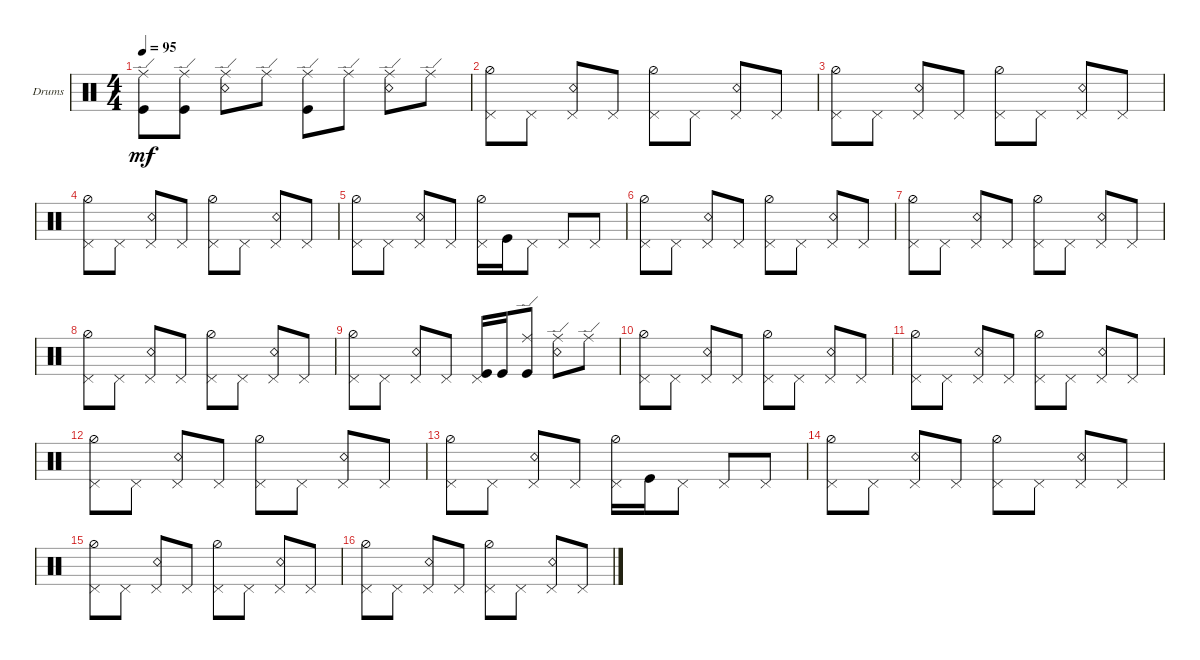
\bracketExtendMode groupsimilarinstruments
\firstSystemTrackNameOrientation horizontal
\otherSystemsTrackNameOrientation horizontal
\track ("Drumkit" "Drums") {instrument percussion}
\staff {score}
\articulation defaults
\ts (4 4)
\tempo 95
\clef neutral
\ks c
("Kick (hit)" "Ride (edge)").8{dy mf} ("Kick (hit)" "Ride (edge)").8 ("Snare (rim shot)" "Ride (edge)").8 "Ride (edge)".8 ("Kick (hit)" "Ride (edge)").8 "Ride (edge)".8 ("Snare (rim shot)" "Ride (edge)").8 "Ride (edge)".8 |
("Pedal Hi-Hat (hit)" "Hi-Hat (half)").8 "Pedal Hi-Hat (hit)".8 ("Pedal Hi-Hat (hit)" "Snare (rim shot)").8 "Pedal Hi-Hat (hit)".8 ("Pedal Hi-Hat (hit)" "Hi-Hat (half)").8 "Pedal Hi-Hat (hit)".8 ("Pedal Hi-Hat (hit)" "Snare (rim shot)").8 "Pedal Hi-Hat (hit)".8 |
("Pedal Hi-Hat (hit)" "Hi-Hat (half)").8 "Pedal Hi-Hat (hit)".8 ("Pedal Hi-Hat (hit)" "Snare (rim shot)").8 "Pedal Hi-Hat (hit)".8 ("Pedal Hi-Hat (hit)" "Hi-Hat (half)").8 "Pedal Hi-Hat (hit)".8 ("Pedal Hi-Hat (hit)" "Snare (rim shot)").8 "Pedal Hi-Hat (hit)".8 |
("Pedal Hi-Hat (hit)" "Hi-Hat (half)").8 "Pedal Hi-Hat (hit)".8 ("Pedal Hi-Hat (hit)" "Snare (rim shot)").8 "Pedal Hi-Hat (hit)".8 ("Pedal Hi-Hat (hit)" "Hi-Hat (half)").8 "Pedal Hi-Hat (hit)".8 ("Pedal Hi-Hat (hit)" "Snare (rim shot)").8 "Pedal Hi-Hat (hit)".8 |
("Pedal Hi-Hat (hit)" "Hi-Hat (half)").8 "Pedal Hi-Hat (hit)".8 ("Pedal Hi-Hat (hit)" "Snare (rim shot)").8 "Pedal Hi-Hat (hit)".8 ("Pedal Hi-Hat (hit)" "Hi-Hat (half)").16 "Kick (hit)".16 "Pedal Hi-Hat (hit)".8 "Pedal Hi-Hat (hit)".8 "Pedal Hi-Hat (hit)".8 |
("Pedal Hi-Hat (hit)" "Hi-Hat (half)").8 "Pedal Hi-Hat (hit)".8 ("Pedal Hi-Hat (hit)" "Snare (rim shot)").8 "Pedal Hi-Hat (hit)".8 ("Pedal Hi-Hat (hit)" "Hi-Hat (half)").8 "Pedal Hi-Hat (hit)".8 ("Pedal Hi-Hat (hit)" "Snare (rim shot)").8 "Pedal Hi-Hat (hit)".8 |
("Pedal Hi-Hat (hit)" "Hi-Hat (half)").8 "Pedal Hi-Hat (hit)".8 ("Pedal Hi-Hat (hit)" "Snare (rim shot)").8 "Pedal Hi-Hat (hit)".8 ("Pedal Hi-Hat (hit)" "Hi-Hat (half)").8 "Pedal Hi-Hat (hit)".8 ("Pedal Hi-Hat (hit)" "Snare (rim shot)").8 "Pedal Hi-Hat (hit)".8 |
("Pedal Hi-Hat (hit)" "Hi-Hat (half)").8 "Pedal Hi-Hat (hit)".8 ("Pedal Hi-Hat (hit)" "Snare (rim shot)").8 "Pedal Hi-Hat (hit)".8 ("Pedal Hi-Hat (hit)" "Hi-Hat (half)").8 "Pedal Hi-Hat (hit)".8 ("Pedal Hi-Hat (hit)" "Snare (rim shot)").8 "Pedal Hi-Hat (hit)".8 |
("Pedal Hi-Hat (hit)" "Hi-Hat (half)").8 "Pedal Hi-Hat (hit)".8 ("Pedal Hi-Hat (hit)" "Snare (rim shot)").8 "Pedal Hi-Hat (hit)".8 ("Pedal Hi-Hat (hit)" "Kick (hit)").16 "Kick (hit)".16 ("Kick (hit)" "Ride (edge)").8 ("Snare (rim shot)" "Ride (edge)").8 "Ride (edge)".8 |
("Pedal Hi-Hat (hit)" "Hi-Hat (half)").8 "Pedal Hi-Hat (hit)".8 ("Pedal Hi-Hat (hit)" "Snare (rim shot)").8 "Pedal Hi-Hat (hit)".8 ("Pedal Hi-Hat (hit)" "Hi-Hat (half)").8 "Pedal Hi-Hat (hit)".8 ("Pedal Hi-Hat (hit)" "Snare (rim shot)").8 "Pedal Hi-Hat (hit)".8 |
("Pedal Hi-Hat (hit)" "Hi-Hat (half)").8 "Pedal Hi-Hat (hit)".8 ("Pedal Hi-Hat (hit)" "Snare (rim shot)").8 "Pedal Hi-Hat (hit)".8 ("Pedal Hi-Hat (hit)" "Hi-Hat (half)").8 "Pedal Hi-Hat (hit)".8 ("Pedal Hi-Hat (hit)" "Snare (rim shot)").8 "Pedal Hi-Hat (hit)".8 |
("Pedal Hi-Hat (hit)" "Hi-Hat (half)").8 "Pedal Hi-Hat (hit)".8 ("Pedal Hi-Hat (hit)" "Snare (rim shot)").8 "Pedal Hi-Hat (hit)".8 ("Pedal Hi-Hat (hit)" "Hi-Hat (half)").8 "Pedal Hi-Hat (hit)".8 ("Pedal Hi-Hat (hit)" "Snare (rim shot)").8 "Pedal Hi-Hat (hit)".8 |
("Pedal Hi-Hat (hit)" "Hi-Hat (half)").8 "Pedal Hi-Hat (hit)".8 ("Pedal Hi-Hat (hit)" "Snare (rim shot)").8 "Pedal Hi-Hat (hit)".8 ("Pedal Hi-Hat (hit)" "Hi-Hat (half)").16 "Kick (hit)".16 "Pedal Hi-Hat (hit)".8 "Pedal Hi-Hat (hit)".8 "Pedal Hi-Hat (hit)".8 |
("Pedal Hi-Hat (hit)" "Hi-Hat (half)").8 "Pedal Hi-Hat (hit)".8 ("Pedal Hi-Hat (hit)" "Snare (rim shot)").8 "Pedal Hi-Hat (hit)".8 ("Pedal Hi-Hat (hit)" "Hi-Hat (half)").8 "Pedal Hi-Hat (hit)".8 ("Pedal Hi-Hat (hit)" "Snare (rim shot)").8 "Pedal Hi-Hat (hit)".8 |
("Pedal Hi-Hat (hit)" "Hi-Hat (half)").8 "Pedal Hi-Hat (hit)".8 ("Pedal Hi-Hat (hit)" "Snare (rim shot)").8 "Pedal Hi-Hat (hit)".8 ("Pedal Hi-Hat (hit)" "Hi-Hat (half)").8 "Pedal Hi-Hat (hit)".8 ("Pedal Hi-Hat (hit)" "Snare (rim shot)").8 "Pedal Hi-Hat (hit)".8 |
("Pedal Hi-Hat (hit)" "Hi-Hat (half)").8 "Pedal Hi-Hat (hit)".8 ("Pedal Hi-Hat (hit)" "Snare (rim shot)").8 "Pedal Hi-Hat (hit)".8 ("Pedal Hi-Hat (hit)" "Hi-Hat (half)").8 "Pedal Hi-Hat (hit)".8 ("Pedal Hi-Hat (hit)" "Snare (rim shot)").8 "Pedal Hi-Hat (hit)".8
